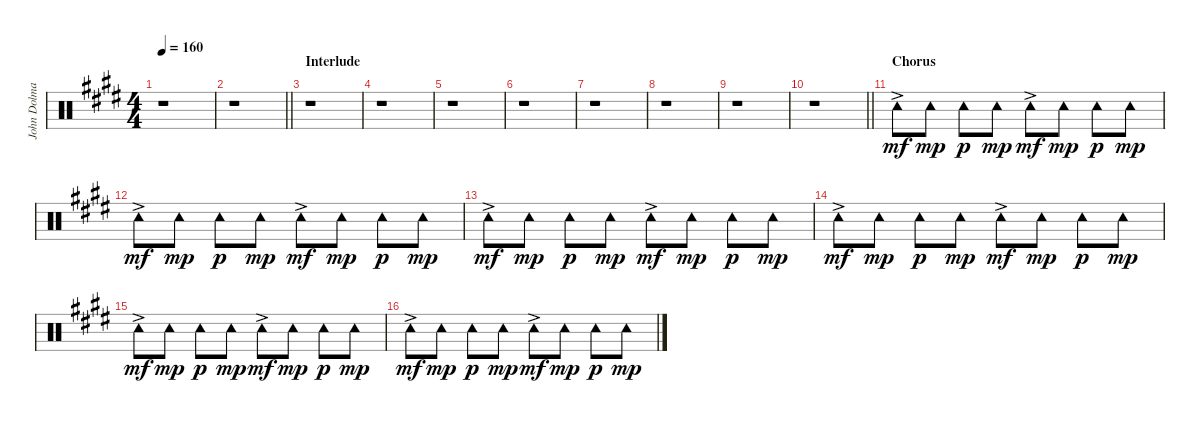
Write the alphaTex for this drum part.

\track ("John Dolmayan [Tambourine]" "John Dolma") {instrument percussion}
\staff {score}
\articulation defaults
\ts (4 4)
\tempo 160
\clef neutral
\ks c#minor
r.1{dy mp} |
\barLineRight lightlight
r.1 |
\section ("" "Interlude")
r.1 |
r.1 |
r.1 |
r.1 |
r.1 |
r.1 |
r.1 |
\barLineRight lightlight
r.1 |
\section ("" "Chorus")
"Tambourine (hit)"{ac}.8{dy mf} "Tambourine (hit)".8{dy mp} "Tambourine (hit)".8{dy p} "Tambourine (hit)".8{dy mp} "Tambourine (hit)"{ac}.8{dy mf} "Tambourine (hit)".8{dy mp} "Tambourine (hit)".8{dy p} "Tambourine (hit)".8{dy mp} |
"Tambourine (hit)"{ac}.8{dy mf} "Tambourine (hit)".8{dy mp} "Tambourine (hit)".8{dy p} "Tambourine (hit)".8{dy mp} "Tambourine (hit)"{ac}.8{dy mf} "Tambourine (hit)".8{dy mp} "Tambourine (hit)".8{dy p} "Tambourine (hit)".8{dy mp} |
"Tambourine (hit)"{ac}.8{dy mf} "Tambourine (hit)".8{dy mp} "Tambourine (hit)".8{dy p} "Tambourine (hit)".8{dy mp} "Tambourine (hit)"{ac}.8{dy mf} "Tambourine (hit)".8{dy mp} "Tambourine (hit)".8{dy p} "Tambourine (hit)".8{dy mp} |
"Tambourine (hit)"{ac}.8{dy mf} "Tambourine (hit)".8{dy mp} "Tambourine (hit)".8{dy p} "Tambourine (hit)".8{dy mp} "Tambourine (hit)"{ac}.8{dy mf} "Tambourine (hit)".8{dy mp} "Tambourine (hit)".8{dy p} "Tambourine (hit)".8{dy mp} |
"Tambourine (hit)"{ac}.8{dy mf} "Tambourine (hit)".8{dy mp} "Tambourine (hit)".8{dy p} "Tambourine (hit)".8{dy mp} "Tambourine (hit)"{ac}.8{dy mf} "Tambourine (hit)".8{dy mp} "Tambourine (hit)".8{dy p} "Tambourine (hit)".8{dy mp} |
"Tambourine (hit)"{ac}.8{dy mf} "Tambourine (hit)".8{dy mp} "Tambourine (hit)".8{dy p} "Tambourine (hit)".8{dy mp} "Tambourine (hit)"{ac}.8{dy mf} "Tambourine (hit)".8{dy mp} "Tambourine (hit)".8{dy p} "Tambourine (hit)".8{dy mp}
